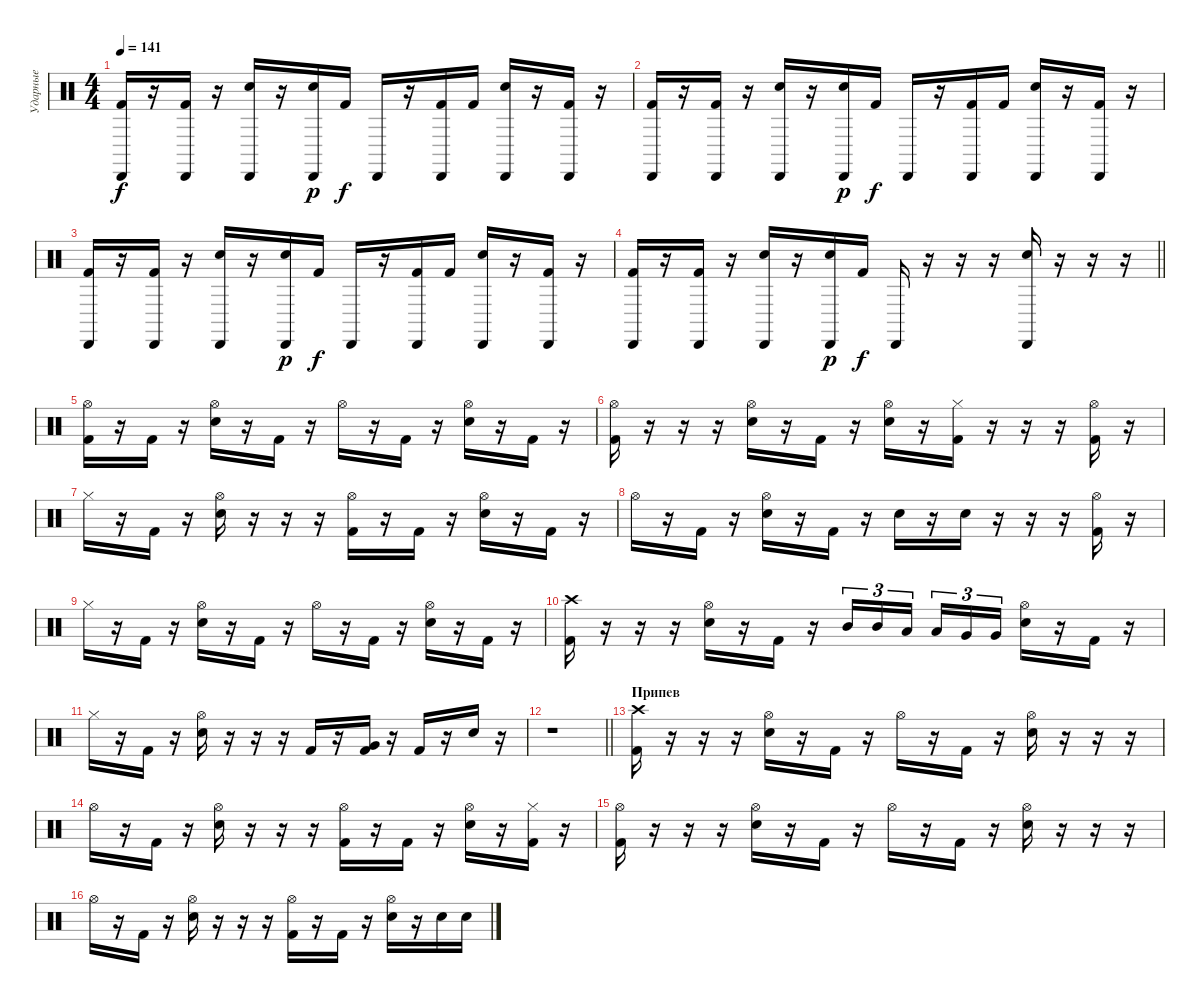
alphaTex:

\track ("Ударные" "Ударные") {instrument percussion}
\staff {score}
\articulation defaults
\ts (4 4)
\tempo 141
\clef neutral
\ks c
("Cabasa (hit)" "Kick (hit) 2").16{dy f} r.16 ("Cabasa (hit)" "Kick (hit) 2").16 r.16 ("Cabasa (hit)" "Electric Snare (hit)").16 r.16 ("Cabasa (hit)" "Electric Snare (hit)").16{dy p} "Kick (hit) 2".16{dy f} "Cabasa (hit)".16 r.16 ("Cabasa (hit)" "Kick (hit) 2").16 "Kick (hit) 2".16 ("Cabasa (hit)" "Electric Snare (hit)").16 r.16 ("Cabasa (hit)" "Kick (hit) 2").16 r.16 |
("Cabasa (hit)" "Kick (hit) 2").16 r.16 ("Cabasa (hit)" "Kick (hit) 2").16 r.16 ("Cabasa (hit)" "Electric Snare (hit)").16 r.16 ("Cabasa (hit)" "Electric Snare (hit)").16{dy p} "Kick (hit) 2".16{dy f} "Cabasa (hit)".16 r.16 ("Cabasa (hit)" "Kick (hit) 2").16 "Kick (hit) 2".16 ("Cabasa (hit)" "Electric Snare (hit)").16 r.16 ("Cabasa (hit)" "Kick (hit) 2").16 r.16 |
("Cabasa (hit)" "Kick (hit) 2").16 r.16 ("Cabasa (hit)" "Kick (hit) 2").16 r.16 ("Cabasa (hit)" "Electric Snare (hit)").16 r.16 ("Cabasa (hit)" "Electric Snare (hit)").16{dy p} "Kick (hit) 2".16{dy f} "Cabasa (hit)".16 r.16 ("Cabasa (hit)" "Kick (hit) 2").16 "Kick (hit) 2".16 ("Cabasa (hit)" "Electric Snare (hit)").16 r.16 ("Cabasa (hit)" "Kick (hit) 2").16 r.16 |
\barLineRight lightlight
("Cabasa (hit)" "Kick (hit) 2").16 r.16 ("Cabasa (hit)" "Kick (hit) 2").16 r.16 ("Cabasa (hit)" "Electric Snare (hit)").16 r.16 ("Cabasa (hit)" "Electric Snare (hit)").16{dy p} "Kick (hit) 2".16{dy f} "Cabasa (hit)".16 r.16 r.16 r.16 ("Cabasa (hit)" "Electric Snare (hit)").16 r.16 r.16 r.16 |
\section ("" "")
("Hi-Hat (open)" "Kick (hit) 2").16 r.16 "Kick (hit) 2".16 r.16 ("Hi-Hat (open)" "Electric Snare (hit)").16 r.16 "Kick (hit) 2".16 r.16 "Hi-Hat (open)".16 r.16 "Kick (hit) 2".16 r.16 ("Hi-Hat (open)" "Electric Snare (hit)").16 r.16 "Kick (hit) 2".16 r.16 |
("Hi-Hat (open)" "Kick (hit) 2").16 r.16 r.16 r.16 ("Hi-Hat (open)" "Electric Snare (hit)").16 r.16 "Kick (hit) 2".16 r.16 ("Hi-Hat (open)" "Electric Snare (hit)").16 r.16 ("Hi-Hat (closed)" "Kick (hit) 2").16 r.16 r.16 r.16 ("Hi-Hat (open)" "Kick (hit) 2").16 r.16 |
"Hi-Hat (closed)".16 r.16 "Kick (hit) 2".16 r.16 ("Hi-Hat (open)" "Electric Snare (hit)").16 r.16 r.16 r.16 ("Hi-Hat (open)" "Kick (hit) 2").16 r.16 "Kick (hit) 2".16 r.16 ("Hi-Hat (open)" "Electric Snare (hit)").16 r.16 "Kick (hit) 2".16 r.16 |
"Hi-Hat (open)".16 r.16 "Kick (hit) 2".16 r.16 ("Hi-Hat (open)" "Electric Snare (hit)").16 r.16 "Kick (hit) 2".16 r.16 "Electric Snare (hit)".16 r.16 "Electric Snare (hit)".16 r.16 r.16 r.16 ("Hi-Hat (open)" "Kick (hit) 2").16 r.16 |
"Hi-Hat (closed)".16 r.16 "Kick (hit) 2".16 r.16 ("Hi-Hat (open)" "Electric Snare (hit)").16 r.16 "Kick (hit) 2".16 r.16 "Hi-Hat (open)".16 r.16 "Kick (hit) 2".16 r.16 ("Hi-Hat (open)" "Electric Snare (hit)").16 r.16 "Kick (hit) 2".16 r.16 |
("Crash high (hit)" "Kick (hit) 2").16 r.16 r.16 r.16 ("Hi-Hat (open)" "Electric Snare (hit)").16 r.16 "Kick (hit) 2".16 r.16 "Mid Tom (hit)".16{tu (3 2)} "Mid Tom (hit)".16{tu (3 2)} "Low Tom (hit)".16{tu (3 2) beam splitsecondary} "Low Tom (hit)".16{tu (3 2)} "Very Low Tom (hit)".16{tu (3 2)} "Very Low Tom (hit)".16{tu (3 2)} ("Hi-Hat (open)" "Electric Snare (hit)").16 r.16 "Kick (hit) 2".16 r.16 |
"Hi-Hat (closed)".16 r.16 "Kick (hit) 2".16 r.16 ("Hi-Hat (open)" "Electric Snare (hit)").16 r.16 r.16 r.16 "Kick (hit) 2".16 r.16 ("Very Low Tom (hit)" "Kick (hit) 2").16 r.16 "Kick (hit) 2".16 r.16 "Electric Snare (hit)".16 r.16 |
\barLineRight lightlight
r.1 |
\section ("" "Припев")
("Crash high (hit)" "Kick (hit) 2").16 r.16 r.16 r.16 ("Hi-Hat (open)" "Electric Snare (hit)").16 r.16 "Kick (hit) 2".16 r.16 "Hi-Hat (open)".16 r.16 "Kick (hit) 2".16 r.16 ("Hi-Hat (open)" "Electric Snare (hit)").16 r.16 r.16 r.16 |
"Hi-Hat (open)".16 r.16 "Kick (hit) 2".16 r.16 ("Hi-Hat (open)" "Electric Snare (hit)").16 r.16 r.16 r.16 ("Hi-Hat (open)" "Kick (hit) 2").16 r.16 "Kick (hit) 2".16 r.16 ("Hi-Hat (open)" "Electric Snare (hit)").16 r.16 ("Hi-Hat (closed)" "Kick (hit) 2").16 r.16 |
("Hi-Hat (open)" "Kick (hit) 2").16 r.16 r.16 r.16 ("Hi-Hat (open)" "Electric Snare (hit)").16 r.16 "Kick (hit) 2".16 r.16 "Hi-Hat (open)".16 r.16 "Kick (hit) 2".16 r.16 ("Hi-Hat (open)" "Electric Snare (hit)").16 r.16 r.16 r.16 |
"Hi-Hat (open)".16 r.16 "Kick (hit) 2".16 r.16 ("Hi-Hat (open)" "Electric Snare (hit)").16 r.16 r.16 r.16 ("Hi-Hat (open)" "Kick (hit) 2").16 r.16 "Kick (hit) 2".16 r.16 ("Hi-Hat (open)" "Electric Snare (hit)").16 r.16 "Electric Snare (hit)".16 "Electric Snare (hit)".16
